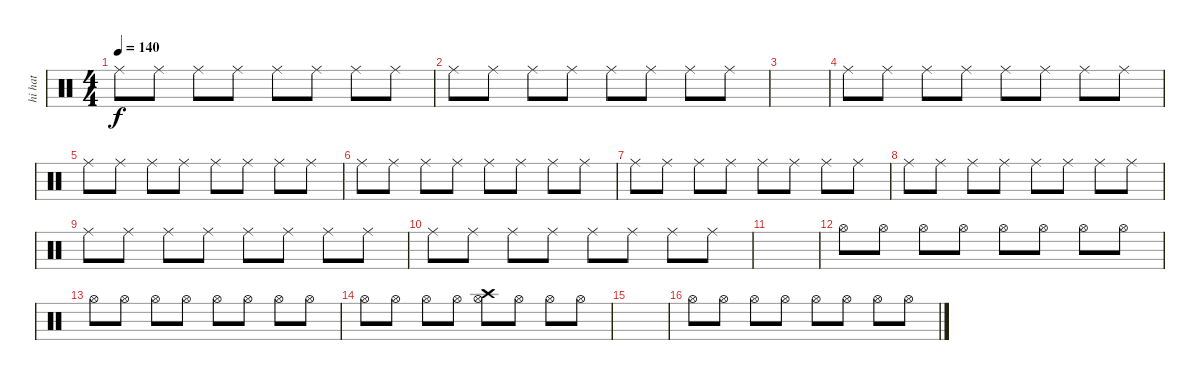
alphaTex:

\track ("hi hat" "hi hat") {instrument percussion}
\staff {score}
\articulation defaults
\ts (4 4)
\tempo 140
\clef neutral
\ks c "Ride (middle)".8{dy f} "Ride (middle)".8 "Ride (middle)".8 "Ride (middle)".8 "Ride (middle)".8 "Ride (middle)".8 "Ride (middle)".8 "Ride (middle)".8
|
"Ride (middle)".8 "Ride (middle)".8 "Ride (middle)".8 "Ride (middle)".8 "Ride (middle)".8 "Ride (middle)".8 "Ride (middle)".8 "Ride (middle)".8 |
|
"Ride (middle)".8 "Ride (middle)".8 "Ride (middle)".8 "Ride (middle)".8 "Ride (middle)".8 "Ride (middle)".8 "Ride (middle)".8 "Ride (middle)".8 |
"Ride (middle)".8 "Ride (middle)".8 "Ride (middle)".8 "Ride (middle)".8 "Ride (middle)".8 "Ride (middle)".8 "Ride (middle)".8 "Ride (middle)".8 |
"Ride (middle)".8 "Ride (middle)".8 "Ride (middle)".8 "Ride (middle)".8 "Ride (middle)".8 "Ride (middle)".8 "Ride (middle)".8 "Ride (middle)".8 |
"Ride (middle)".8 "Ride (middle)".8 "Ride (middle)".8 "Ride (middle)".8 "Ride (middle)".8 "Ride (middle)".8 "Ride (middle)".8 "Ride (middle)".8 |
"Ride (middle)".8 "Ride (middle)".8 "Ride (middle)".8 "Ride (middle)".8 "Ride (middle)".8 "Ride (middle)".8 "Ride (middle)".8 "Ride (middle)".8 |
"Ride (middle)".8 "Ride (middle)".8 "Ride (middle)".8 "Ride (middle)".8 "Ride (middle)".8 "Ride (middle)".8 "Ride (middle)".8 "Ride (middle)".8 |
"Ride (middle)".8 "Ride (middle)".8 "Ride (middle)".8 "Ride (middle)".8 "Ride (middle)".8 "Ride (middle)".8 "Ride (middle)".8 "Ride (middle)".8 |
|
"Hi-Hat (open)".8 "Hi-Hat (open)".8 "Hi-Hat (open)".8 "Hi-Hat (open)".8 "Hi-Hat (open)".8 "Hi-Hat (open)".8 "Hi-Hat (open)".8 "Hi-Hat (open)".8 |
"Hi-Hat (open)".8 "Hi-Hat (open)".8 "Hi-Hat (open)".8 "Hi-Hat (open)".8 "Hi-Hat (open)".8 "Hi-Hat (open)".8 "Hi-Hat (open)".8 "Hi-Hat (open)".8 |
"Hi-Hat (open)".8 "Hi-Hat (open)".8 "Hi-Hat (open)".8 "Hi-Hat (open)".8 ("Crash high (hit)" "Hi-Hat (open)").8 "Hi-Hat (open)".8 "Hi-Hat (open)".8 "Hi-Hat (open)".8 |
|
"Hi-Hat (open)".8 "Hi-Hat (open)".8 "Hi-Hat (open)".8 "Hi-Hat (open)".8 "Hi-Hat (open)".8 "Hi-Hat (open)".8 "Hi-Hat (open)".8 "Hi-Hat (open)".8
